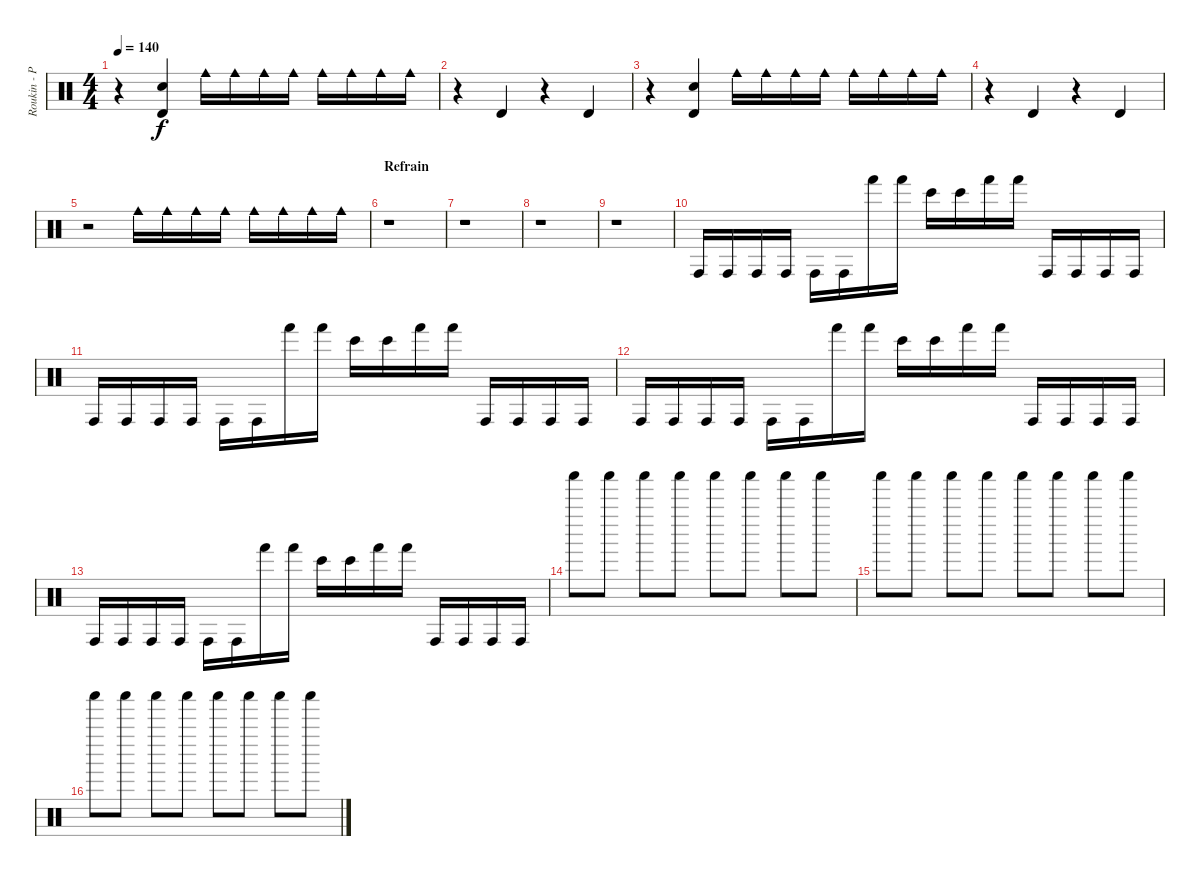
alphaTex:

\track ("Roukin - Percus" "Roukin - P") {instrument percussion}
\staff {score}
\articulation defaults
\ts (4 4)
\tempo 140
\clef neutral
\ks c
r.4{dy f} ("Timbale high (hit)" "Hand Clap (hit)").4 "Cowbell medium (hit)".16 "Cowbell medium (hit)".16 "Cowbell medium (hit)".16 "Cowbell medium (hit)".16 "Cowbell medium (hit)".16 "Cowbell medium (hit)".16 "Cowbell medium (hit)".16 "Cowbell medium (hit)".16 |
r.4 "Timbale high (hit)".4 r.4 "Timbale high (hit)".4 |
r.4 ("Timbale high (hit)" "Hand Clap (hit)").4 "Cowbell medium (hit)".16 "Cowbell medium (hit)".16 "Cowbell medium (hit)".16 "Cowbell medium (hit)".16 "Cowbell medium (hit)".16 "Cowbell medium (hit)".16 "Cowbell medium (hit)".16 "Cowbell medium (hit)".16 |
r.4 "Timbale high (hit)".4 r.4 "Timbale high (hit)".4 |
r.2 "Cowbell medium (hit)".16 "Cowbell medium (hit)".16 "Cowbell medium (hit)".16 "Cowbell medium (hit)".16 "Cowbell medium (hit)".16 "Cowbell medium (hit)".16 "Cowbell medium (hit)".16 "Cowbell medium (hit)".16 |
\section ("" "Refrain")
r.1 |
r.1 |
r.1 |
r.1 |
"Conga high (hit)".16 "Conga high (hit)".16 "Conga high (hit)".16 "Conga high (hit)".16 "Conga high (hit)".16 "Conga high (hit)".16 "Hand (hit)".16 "Hand (hit)".16 "Bongo High (hit)".16 "Bongo High (hit)".16 "Hand (hit)".16 "Hand (hit)".16 "Conga high (hit)".16 "Conga high (hit)".16 "Conga high (hit)".16 "Conga high (hit)".16 |
"Conga high (hit)".16 "Conga high (hit)".16 "Conga high (hit)".16 "Conga high (hit)".16 "Conga high (hit)".16 "Conga high (hit)".16 "Hand (hit)".16 "Hand (hit)".16 "Bongo High (hit)".16 "Bongo High (hit)".16 "Hand (hit)".16 "Hand (hit)".16 "Conga high (hit)".16 "Conga high (hit)".16 "Conga high (hit)".16 "Conga high (hit)".16 |
"Conga high (hit)".16 "Conga high (hit)".16 "Conga high (hit)".16 "Conga high (hit)".16 "Conga high (hit)".16 "Conga high (hit)".16 "Hand (hit)".16 "Hand (hit)".16 "Bongo High (hit)".16 "Bongo High (hit)".16 "Hand (hit)".16 "Hand (hit)".16 "Conga high (hit)".16 "Conga high (hit)".16 "Conga high (hit)".16 "Conga high (hit)".16 |
"Conga high (hit)".16 "Conga high (hit)".16 "Conga high (hit)".16 "Conga high (hit)".16 "Conga high (hit)".16 "Conga high (hit)".16 "Hand (hit)".16 "Hand (hit)".16 "Bongo High (hit)".16 "Bongo High (hit)".16 "Hand (hit)".16 "Hand (hit)".16 "Conga high (hit)".16 "Conga high (hit)".16 "Conga high (hit)".16 "Conga high (hit)".16 |
"Shaker (hit)".8 "Shaker (hit)".8 "Shaker (hit)".8 "Shaker (hit)".8 "Shaker (hit)".8 "Shaker (hit)".8 "Shaker (hit)".8 "Shaker (hit)".8 |
"Shaker (hit)".8 "Shaker (hit)".8 "Shaker (hit)".8 "Shaker (hit)".8 "Shaker (hit)".8 "Shaker (hit)".8 "Shaker (hit)".8 "Shaker (hit)".8 |
"Shaker (hit)".8 "Shaker (hit)".8 "Shaker (hit)".8 "Shaker (hit)".8 "Shaker (hit)".8 "Shaker (hit)".8 "Shaker (hit)".8 "Shaker (hit)".8
